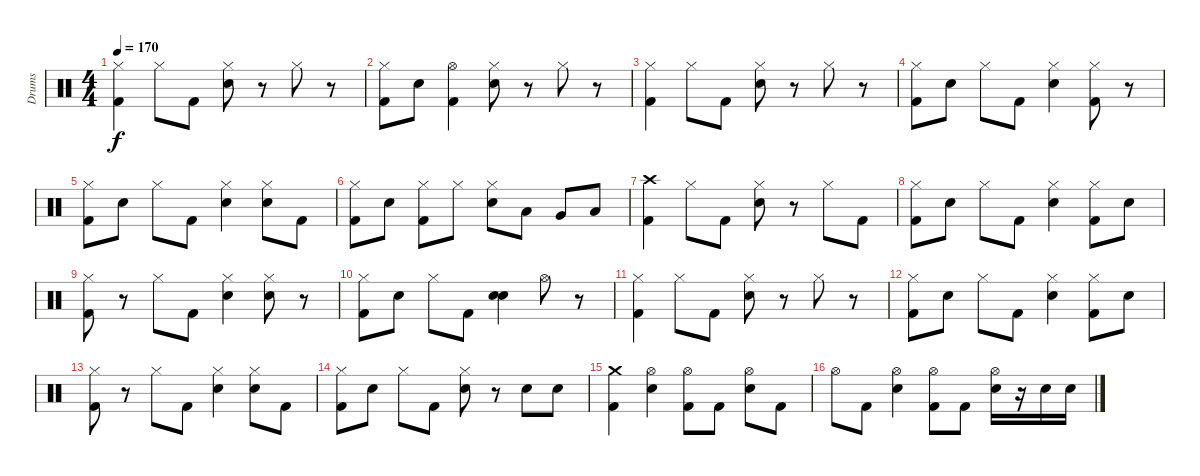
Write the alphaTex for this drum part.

\track ("Drums" "Drums") {instrument percussion}
\staff {score}
\articulation defaults
\ts (4 4)
\tempo 170
\clef neutral
\ks c
("Hi-Hat (closed)" "Kick (hit) 2").4{dy f} "Hi-Hat (closed)".8 "Kick (hit) 2".8 ("Hi-Hat (closed)" "Snare (hit) 2").8 r.8 "Hi-Hat (closed)".8 r.8 |
("Hi-Hat (closed)" "Kick (hit) 2").8 "Snare (hit) 2".8 ("Hi-Hat (open)" "Kick (hit) 2").4 ("Hi-Hat (closed)" "Snare (hit) 2").8 r.8 "Hi-Hat (closed)".8 r.8 |
("Hi-Hat (closed)" "Kick (hit) 2").4 "Hi-Hat (closed)".8 "Kick (hit) 2".8 ("Hi-Hat (closed)" "Snare (hit) 2").8 r.8 "Hi-Hat (closed)".8 r.8 |
("Hi-Hat (closed)" "Kick (hit) 2").8 "Snare (hit) 2".8 "Hi-Hat (closed)".8 "Kick (hit) 2".8 ("Hi-Hat (closed)" "Snare (hit) 2").4 ("Hi-Hat (closed)" "Kick (hit) 2").8 r.8 |
("Hi-Hat (closed)" "Kick (hit) 2").8 "Snare (hit) 2".8 "Hi-Hat (closed)".8 "Kick (hit) 2".8 ("Hi-Hat (closed)" "Snare (hit) 2").4 ("Hi-Hat (closed)" "Snare (hit) 2").8 "Kick (hit) 2".8 |
("Hi-Hat (closed)" "Kick (hit) 2").8 "Snare (hit) 2".8 ("Hi-Hat (closed)" "Kick (hit) 2").8 "Hi-Hat (closed)".8 ("Hi-Hat (closed)" "Snare (hit) 2").8 "Low Tom (hit)".8 "Very Low Tom (hit)".8 "Low Floor Tom (hit)".8 |
("Crash high (hit)" "Kick (hit) 2").4 "Hi-Hat (closed)".8 "Kick (hit) 2".8 ("Hi-Hat (closed)" "Snare (hit) 2").8 r.8 "Hi-Hat (closed)".8 "Kick (hit) 2".8 |
("Hi-Hat (closed)" "Kick (hit) 2").8 "Snare (hit) 2".8 "Hi-Hat (closed)".8 "Kick (hit) 2".8 ("Hi-Hat (closed)" "Snare (hit) 2").4 ("Hi-Hat (closed)" "Kick (hit) 2").8 "Snare (hit) 2".8 |
("Hi-Hat (closed)" "Kick (hit) 2").8 r.8 "Hi-Hat (closed)".8 "Kick (hit) 2".8 ("Hi-Hat (closed)" "Snare (hit) 2").4 ("Hi-Hat (closed)" "Snare (hit) 2").8 r.8 |
("Hi-Hat (closed)" "Kick (hit) 2").8 "Snare (hit) 2".8 "Hi-Hat (closed)".8 "Kick (hit) 2".8 ("Snare (hit) 2" "Snare (hit) 2").4 "Hi-Hat (open)".8 r.8 |
("Hi-Hat (closed)" "Kick (hit) 2").4 "Hi-Hat (closed)".8 "Kick (hit) 2".8 ("Hi-Hat (closed)" "Snare (hit) 2").8 r.8 "Hi-Hat (closed)".8 r.8 |
("Hi-Hat (closed)" "Kick (hit) 2").8 "Snare (hit) 2".8 "Hi-Hat (closed)".8 "Kick (hit) 2".8 ("Hi-Hat (closed)" "Snare (hit) 2").4 ("Hi-Hat (closed)" "Kick (hit) 2").8 "Snare (hit) 2".8 |
("Hi-Hat (closed)" "Kick (hit) 2").8 r.8 "Hi-Hat (closed)".8 "Kick (hit) 2".8 ("Hi-Hat (closed)" "Snare (hit) 2").4 ("Hi-Hat (closed)" "Snare (hit) 2").8 "Kick (hit) 2".8 |
("Hi-Hat (closed)" "Kick (hit) 2").8 "Snare (hit) 2".8 "Hi-Hat (closed)".8 "Kick (hit) 2".8 ("Hi-Hat (closed)" "Snare (hit) 2").8 r.8 "Snare (hit) 2".8 "Snare (hit) 2".8 |
("Crash medium (hit)" "Kick (hit) 2").4 ("Hi-Hat (open)" "Snare (hit) 2").4 ("Hi-Hat (open)" "Kick (hit) 2").8 "Kick (hit) 2".8 ("Hi-Hat (open)" "Snare (hit) 2").8 "Kick (hit) 2".8 |
"Hi-Hat (open)".8 "Kick (hit) 2".8 ("Hi-Hat (open)" "Snare (hit) 2").4 ("Hi-Hat (open)" "Kick (hit) 2").8 "Kick (hit) 2".8 ("Hi-Hat (open)" "Snare (hit) 2").16 r.16 "Snare (hit) 2".16 "Snare (hit) 2".16
